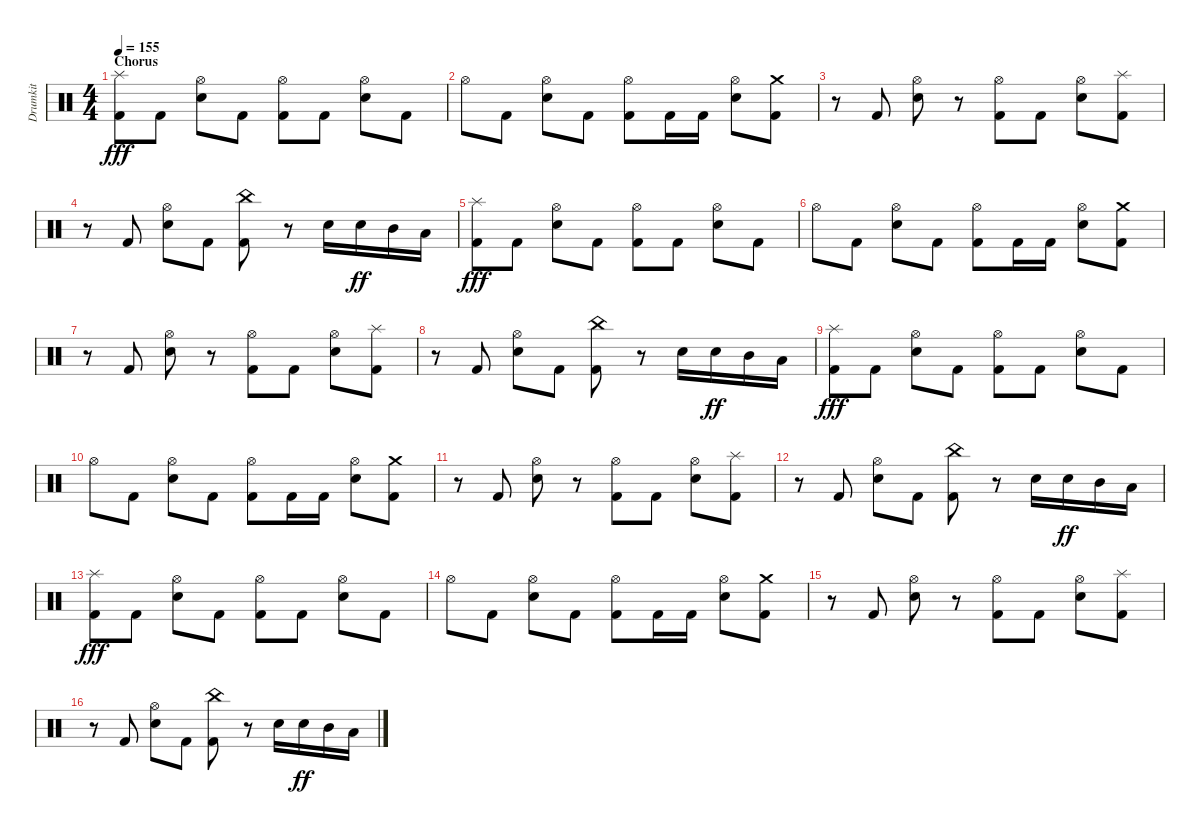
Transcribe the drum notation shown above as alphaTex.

\track ("Drumkit" "Drumkit") {instrument percussion}
\staff {score}
\articulation defaults
\ts (4 4)
\section ("" "Chorus")
\tempo 155
\clef neutral
\ks c
("Kick (hit) 2" "Splash (hit)").8{dy fff} "Kick (hit) 2".8 ("Snare (hit) 2" "Hi-Hat (open)").8 "Kick (hit) 2".8 ("Kick (hit) 2" "Hi-Hat (open)").8 "Kick (hit) 2".8 ("Snare (hit) 2" "Hi-Hat (open)").8 "Kick (hit) 2".8 |
"Hi-Hat (open)".8 "Kick (hit) 2".8 ("Snare (hit) 2" "Hi-Hat (open)").8 "Kick (hit) 2".8 ("Kick (hit) 2" "Hi-Hat (open)").8 "Kick (hit) 2".16 "Kick (hit) 2".16 ("Snare (hit) 2" "Hi-Hat (open)").8 ("Kick (hit) 2" "Crash medium (hit)").8 |
r.8 "Kick (hit) 2".8 ("Snare (hit) 2" "Hi-Hat (open)").8 r.8 ("Kick (hit) 2" "Hi-Hat (open)").8 "Kick (hit) 2".8 ("Snare (hit) 2" "Hi-Hat (open)").8 ("Kick (hit) 2" "Splash (hit)").8 |
r.8 "Kick (hit) 2".8 ("Snare (hit) 2" "Hi-Hat (open)").8 "Kick (hit) 2".8 ("Kick (hit) 2" "China (hit)").8 r.8 "Snare (hit) 2".16 "Snare (hit) 2".16{dy ff} "Mid Tom (hit)".16 "Low Tom (hit)".16 |
("Kick (hit) 2" "Splash (hit)").8{dy fff} "Kick (hit) 2".8 ("Snare (hit) 2" "Hi-Hat (open)").8 "Kick (hit) 2".8 ("Kick (hit) 2" "Hi-Hat (open)").8 "Kick (hit) 2".8 ("Snare (hit) 2" "Hi-Hat (open)").8 "Kick (hit) 2".8 |
"Hi-Hat (open)".8 "Kick (hit) 2".8 ("Snare (hit) 2" "Hi-Hat (open)").8 "Kick (hit) 2".8 ("Kick (hit) 2" "Hi-Hat (open)").8 "Kick (hit) 2".16 "Kick (hit) 2".16 ("Snare (hit) 2" "Hi-Hat (open)").8 ("Kick (hit) 2" "Crash medium (hit)").8 |
r.8 "Kick (hit) 2".8 ("Snare (hit) 2" "Hi-Hat (open)").8 r.8 ("Kick (hit) 2" "Hi-Hat (open)").8 "Kick (hit) 2".8 ("Snare (hit) 2" "Hi-Hat (open)").8 ("Kick (hit) 2" "Splash (hit)").8 |
r.8 "Kick (hit) 2".8 ("Snare (hit) 2" "Hi-Hat (open)").8 "Kick (hit) 2".8 ("Kick (hit) 2" "China (hit)").8 r.8 "Snare (hit) 2".16 "Snare (hit) 2".16{dy ff} "Mid Tom (hit)".16 "Low Tom (hit)".16 |
("Kick (hit) 2" "Splash (hit)").8{dy fff} "Kick (hit) 2".8 ("Snare (hit) 2" "Hi-Hat (open)").8 "Kick (hit) 2".8 ("Kick (hit) 2" "Hi-Hat (open)").8 "Kick (hit) 2".8 ("Snare (hit) 2" "Hi-Hat (open)").8 "Kick (hit) 2".8 |
"Hi-Hat (open)".8 "Kick (hit) 2".8 ("Snare (hit) 2" "Hi-Hat (open)").8 "Kick (hit) 2".8 ("Kick (hit) 2" "Hi-Hat (open)").8 "Kick (hit) 2".16 "Kick (hit) 2".16 ("Snare (hit) 2" "Hi-Hat (open)").8 ("Kick (hit) 2" "Crash medium (hit)").8 |
r.8 "Kick (hit) 2".8 ("Snare (hit) 2" "Hi-Hat (open)").8 r.8 ("Kick (hit) 2" "Hi-Hat (open)").8 "Kick (hit) 2".8 ("Snare (hit) 2" "Hi-Hat (open)").8 ("Kick (hit) 2" "Splash (hit)").8 |
r.8 "Kick (hit) 2".8 ("Snare (hit) 2" "Hi-Hat (open)").8 "Kick (hit) 2".8 ("Kick (hit) 2" "China (hit)").8 r.8 "Snare (hit) 2".16 "Snare (hit) 2".16{dy ff} "Mid Tom (hit)".16 "Low Tom (hit)".16 |
("Kick (hit) 2" "Splash (hit)").8{dy fff} "Kick (hit) 2".8 ("Snare (hit) 2" "Hi-Hat (open)").8 "Kick (hit) 2".8 ("Kick (hit) 2" "Hi-Hat (open)").8 "Kick (hit) 2".8 ("Snare (hit) 2" "Hi-Hat (open)").8 "Kick (hit) 2".8 |
"Hi-Hat (open)".8 "Kick (hit) 2".8 ("Snare (hit) 2" "Hi-Hat (open)").8 "Kick (hit) 2".8 ("Kick (hit) 2" "Hi-Hat (open)").8 "Kick (hit) 2".16 "Kick (hit) 2".16 ("Snare (hit) 2" "Hi-Hat (open)").8 ("Kick (hit) 2" "Crash medium (hit)").8 |
r.8 "Kick (hit) 2".8 ("Snare (hit) 2" "Hi-Hat (open)").8 r.8 ("Kick (hit) 2" "Hi-Hat (open)").8 "Kick (hit) 2".8 ("Snare (hit) 2" "Hi-Hat (open)").8 ("Kick (hit) 2" "Splash (hit)").8 |
r.8 "Kick (hit) 2".8 ("Snare (hit) 2" "Hi-Hat (open)").8 "Kick (hit) 2".8 ("Kick (hit) 2" "China (hit)").8 r.8 "Snare (hit) 2".16 "Snare (hit) 2".16{dy ff} "Mid Tom (hit)".16 "Low Tom (hit)".16
